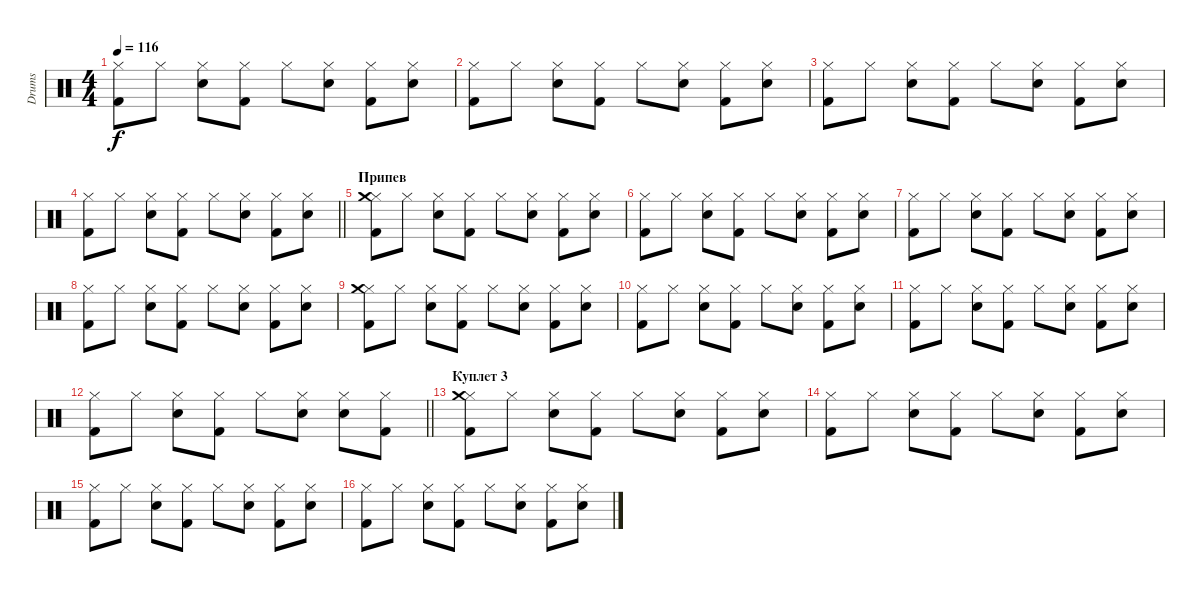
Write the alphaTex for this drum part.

\track ("Drums" "Drums") {instrument percussion}
\staff {score}
\articulation defaults
\ts (4 4)
\tempo 116
\clef neutral
\ks c
("Hi-Hat (closed)" "Kick (hit) 2").8{dy f} "Hi-Hat (closed)".8 ("Hi-Hat (closed)" "Electric Snare (hit)").8 ("Hi-Hat (closed)" "Kick (hit) 2").8 "Hi-Hat (closed)".8 ("Hi-Hat (closed)" "Electric Snare (hit)").8 ("Hi-Hat (closed)" "Kick (hit) 2").8 ("Hi-Hat (closed)" "Electric Snare (hit)").8 |
("Hi-Hat (closed)" "Kick (hit) 2").8 "Hi-Hat (closed)".8 ("Hi-Hat (closed)" "Electric Snare (hit)").8 ("Hi-Hat (closed)" "Kick (hit) 2").8 "Hi-Hat (closed)".8 ("Hi-Hat (closed)" "Electric Snare (hit)").8 ("Hi-Hat (closed)" "Kick (hit) 2").8 ("Hi-Hat (closed)" "Electric Snare (hit)").8 |
("Hi-Hat (closed)" "Kick (hit) 2").8 "Hi-Hat (closed)".8 ("Hi-Hat (closed)" "Electric Snare (hit)").8 ("Hi-Hat (closed)" "Kick (hit) 2").8 "Hi-Hat (closed)".8 ("Hi-Hat (closed)" "Electric Snare (hit)").8 ("Hi-Hat (closed)" "Kick (hit) 2").8 ("Hi-Hat (closed)" "Electric Snare (hit)").8 |
\barLineRight lightlight
("Hi-Hat (closed)" "Kick (hit) 2").8 "Hi-Hat (closed)".8 ("Hi-Hat (closed)" "Electric Snare (hit)").8 ("Hi-Hat (closed)" "Kick (hit) 2").8 "Hi-Hat (closed)".8 ("Hi-Hat (closed)" "Electric Snare (hit)").8 ("Hi-Hat (closed)" "Kick (hit) 2").8 ("Hi-Hat (closed)" "Electric Snare (hit)").8 |
\section ("" "Припев")
("Hi-Hat (closed)" "Kick (hit) 2" "Crash medium (hit)").8 "Hi-Hat (closed)".8 ("Hi-Hat (closed)" "Electric Snare (hit)").8 ("Hi-Hat (closed)" "Kick (hit) 2").8 "Hi-Hat (closed)".8 ("Hi-Hat (closed)" "Electric Snare (hit)").8 ("Hi-Hat (closed)" "Kick (hit) 2").8 ("Hi-Hat (closed)" "Electric Snare (hit)").8 |
("Hi-Hat (closed)" "Kick (hit) 2").8 "Hi-Hat (closed)".8 ("Hi-Hat (closed)" "Electric Snare (hit)").8 ("Hi-Hat (closed)" "Kick (hit) 2").8 "Hi-Hat (closed)".8 ("Hi-Hat (closed)" "Electric Snare (hit)").8 ("Hi-Hat (closed)" "Kick (hit) 2").8 ("Hi-Hat (closed)" "Electric Snare (hit)").8 |
("Hi-Hat (closed)" "Kick (hit) 2").8 "Hi-Hat (closed)".8 ("Hi-Hat (closed)" "Electric Snare (hit)").8 ("Hi-Hat (closed)" "Kick (hit) 2").8 "Hi-Hat (closed)".8 ("Hi-Hat (closed)" "Electric Snare (hit)").8 ("Hi-Hat (closed)" "Kick (hit) 2").8 ("Hi-Hat (closed)" "Electric Snare (hit)").8 |
("Hi-Hat (closed)" "Kick (hit) 2").8 "Hi-Hat (closed)".8 ("Hi-Hat (closed)" "Electric Snare (hit)").8 ("Hi-Hat (closed)" "Kick (hit) 2").8 "Hi-Hat (closed)".8 ("Hi-Hat (closed)" "Electric Snare (hit)").8 ("Hi-Hat (closed)" "Kick (hit) 2").8 ("Hi-Hat (closed)" "Electric Snare (hit)").8 |
("Hi-Hat (closed)" "Kick (hit) 2" "Crash medium (hit)").8 "Hi-Hat (closed)".8 ("Hi-Hat (closed)" "Electric Snare (hit)").8 ("Hi-Hat (closed)" "Kick (hit) 2").8 "Hi-Hat (closed)".8 ("Hi-Hat (closed)" "Electric Snare (hit)").8 ("Hi-Hat (closed)" "Kick (hit) 2").8 ("Hi-Hat (closed)" "Electric Snare (hit)").8 |
("Hi-Hat (closed)" "Kick (hit) 2").8 "Hi-Hat (closed)".8 ("Hi-Hat (closed)" "Electric Snare (hit)").8 ("Hi-Hat (closed)" "Kick (hit) 2").8 "Hi-Hat (closed)".8 ("Hi-Hat (closed)" "Electric Snare (hit)").8 ("Hi-Hat (closed)" "Kick (hit) 2").8 ("Hi-Hat (closed)" "Electric Snare (hit)").8 |
("Hi-Hat (closed)" "Kick (hit) 2").8 "Hi-Hat (closed)".8 ("Hi-Hat (closed)" "Electric Snare (hit)").8 ("Hi-Hat (closed)" "Kick (hit) 2").8 "Hi-Hat (closed)".8 ("Hi-Hat (closed)" "Electric Snare (hit)").8 ("Hi-Hat (closed)" "Kick (hit) 2").8 ("Hi-Hat (closed)" "Electric Snare (hit)").8 |
\barLineRight lightlight
("Hi-Hat (closed)" "Kick (hit) 2").8 "Hi-Hat (closed)".8 ("Hi-Hat (closed)" "Electric Snare (hit)").8 ("Hi-Hat (closed)" "Kick (hit) 2").8 "Hi-Hat (closed)".8 ("Hi-Hat (closed)" "Electric Snare (hit)").8 ("Hi-Hat (closed)" "Electric Snare (hit)").8 ("Hi-Hat (closed)" "Kick (hit) 2").8 |
\section ("" "Куплет 3")
("Hi-Hat (closed)" "Kick (hit) 2" "Crash medium (hit)").8 "Hi-Hat (closed)".8 ("Hi-Hat (closed)" "Electric Snare (hit)").8 ("Hi-Hat (closed)" "Kick (hit) 2").8 "Hi-Hat (closed)".8 ("Hi-Hat (closed)" "Electric Snare (hit)").8 ("Hi-Hat (closed)" "Kick (hit) 2").8 ("Hi-Hat (closed)" "Electric Snare (hit)").8 |
("Hi-Hat (closed)" "Kick (hit) 2").8 "Hi-Hat (closed)".8 ("Hi-Hat (closed)" "Electric Snare (hit)").8 ("Hi-Hat (closed)" "Kick (hit) 2").8 "Hi-Hat (closed)".8 ("Hi-Hat (closed)" "Electric Snare (hit)").8 ("Hi-Hat (closed)" "Kick (hit) 2").8 ("Hi-Hat (closed)" "Electric Snare (hit)").8 |
("Hi-Hat (closed)" "Kick (hit) 2").8 "Hi-Hat (closed)".8 ("Hi-Hat (closed)" "Electric Snare (hit)").8 ("Hi-Hat (closed)" "Kick (hit) 2").8 "Hi-Hat (closed)".8 ("Hi-Hat (closed)" "Electric Snare (hit)").8 ("Hi-Hat (closed)" "Kick (hit) 2").8 ("Hi-Hat (closed)" "Electric Snare (hit)").8 |
("Hi-Hat (closed)" "Kick (hit) 2").8 "Hi-Hat (closed)".8 ("Hi-Hat (closed)" "Electric Snare (hit)").8 ("Hi-Hat (closed)" "Kick (hit) 2").8 "Hi-Hat (closed)".8 ("Hi-Hat (closed)" "Electric Snare (hit)").8 ("Hi-Hat (closed)" "Kick (hit) 2").8 ("Hi-Hat (closed)" "Electric Snare (hit)").8
